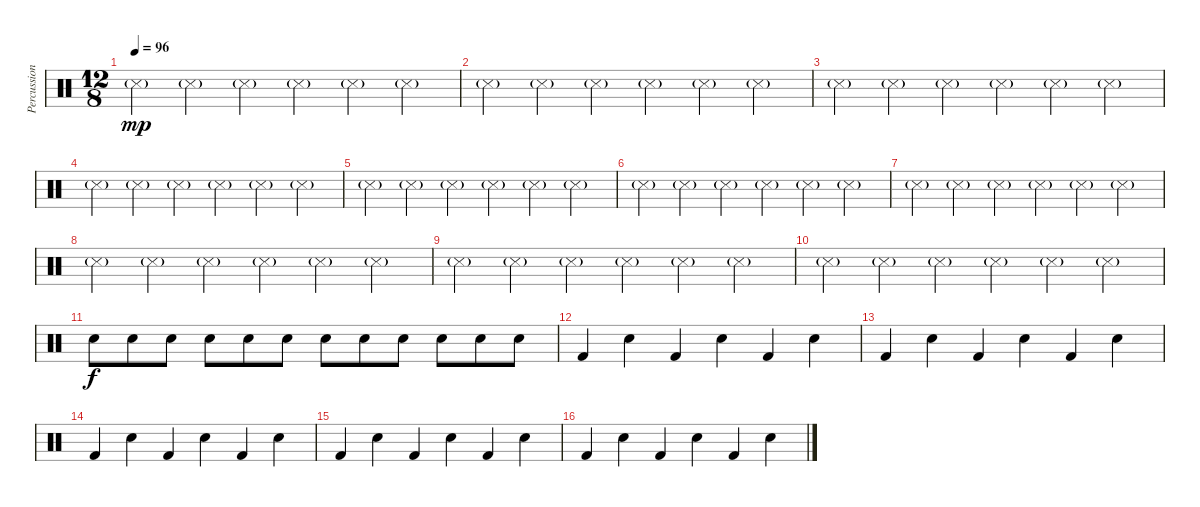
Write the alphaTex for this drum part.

\track ("Percussion" "Percussion") {instrument percussion}
\staff {score}
\articulation defaults
\ts (12 8)
\tempo 96
\clef neutral
\ks c "Snare (side stick) 3"{g}.4{dy mp} "Snare (side stick) 3"{g}.4 "Snare (side stick) 3"{g}.4 "Snare (side stick) 3"{g}.4 "Snare (side stick) 3"{g}.4 "Snare (side stick) 3"{g}.4
|
"Snare (side stick) 3"{g}.4 "Snare (side stick) 3"{g}.4 "Snare (side stick) 3"{g}.4 "Snare (side stick) 3"{g}.4 "Snare (side stick) 3"{g}.4 "Snare (side stick) 3"{g}.4 |
"Snare (side stick) 3"{g}.4 "Snare (side stick) 3"{g}.4 "Snare (side stick) 3"{g}.4 "Snare (side stick) 3"{g}.4 "Snare (side stick) 3"{g}.4 "Snare (side stick) 3"{g}.4 |
"Snare (side stick) 3"{g}.4 "Snare (side stick) 3"{g}.4 "Snare (side stick) 3"{g}.4 "Snare (side stick) 3"{g}.4 "Snare (side stick) 3"{g}.4 "Snare (side stick) 3"{g}.4 |
"Snare (side stick) 3"{g}.4 "Snare (side stick) 3"{g}.4 "Snare (side stick) 3"{g}.4 "Snare (side stick) 3"{g}.4 "Snare (side stick) 3"{g}.4 "Snare (side stick) 3"{g}.4 |
"Snare (side stick) 3"{g}.4 "Snare (side stick) 3"{g}.4 "Snare (side stick) 3"{g}.4 "Snare (side stick) 3"{g}.4 "Snare (side stick) 3"{g}.4 "Snare (side stick) 3"{g}.4 |
"Snare (side stick) 3"{g}.4 "Snare (side stick) 3"{g}.4 "Snare (side stick) 3"{g}.4 "Snare (side stick) 3"{g}.4 "Snare (side stick) 3"{g}.4 "Snare (side stick) 3"{g}.4 |
"Snare (side stick) 3"{g}.4 "Snare (side stick) 3"{g}.4 "Snare (side stick) 3"{g}.4 "Snare (side stick) 3"{g}.4 "Snare (side stick) 3"{g}.4 "Snare (side stick) 3"{g}.4 |
"Snare (side stick) 3"{g}.4 "Snare (side stick) 3"{g}.4 "Snare (side stick) 3"{g}.4 "Snare (side stick) 3"{g}.4 "Snare (side stick) 3"{g}.4 "Snare (side stick) 3"{g}.4 |
"Snare (side stick) 3"{g}.4 "Snare (side stick) 3"{g}.4 "Snare (side stick) 3"{g}.4 "Snare (side stick) 3"{g}.4 "Snare (side stick) 3"{g}.4 "Snare (side stick) 3"{g}.4 |
"Snare (hit) 2".8{dy f} "Snare (hit) 2".8 "Snare (hit) 2".8 "Snare (hit) 2".8 "Snare (hit) 2".8 "Snare (hit) 2".8 "Snare (hit) 2".8 "Snare (hit) 2".8 "Snare (hit) 2".8 "Snare (hit) 2".8 "Snare (hit) 2".8 "Snare (hit) 2".8 |
"Kick (hit) 2".4 "Snare (hit) 2".4 "Kick (hit) 2".4 "Snare (hit) 2".4 "Kick (hit) 2".4 "Snare (hit) 2".4 |
"Kick (hit) 2".4 "Snare (hit) 2".4 "Kick (hit) 2".4 "Snare (hit) 2".4 "Kick (hit) 2".4 "Snare (hit) 2".4 |
"Kick (hit) 2".4 "Snare (hit) 2".4 "Kick (hit) 2".4 "Snare (hit) 2".4 "Kick (hit) 2".4 "Snare (hit) 2".4 |
"Kick (hit) 2".4 "Snare (hit) 2".4 "Kick (hit) 2".4 "Snare (hit) 2".4 "Kick (hit) 2".4 "Snare (hit) 2".4 |
"Kick (hit) 2".4 "Snare (hit) 2".4 "Kick (hit) 2".4 "Snare (hit) 2".4 "Kick (hit) 2".4 "Snare (hit) 2".4
